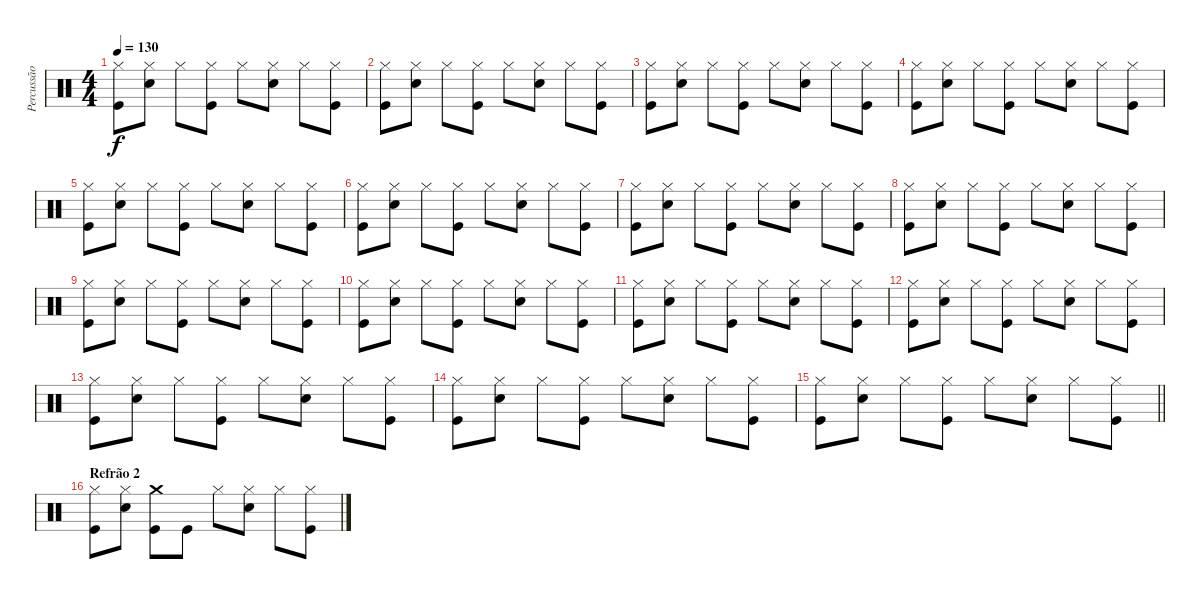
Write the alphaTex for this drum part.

\track ("Percussão" "Percussão") {instrument percussion}
\staff {score}
\articulation defaults
\ts (4 4)
\tempo 130
\clef neutral
\ks c
("Hi-Hat (closed)" "Kick (hit)").8{dy f} ("Hi-Hat (closed)" "Snare (hit) 2").8 "Hi-Hat (closed)".8 ("Hi-Hat (closed)" "Kick (hit)").8 "Hi-Hat (closed)".8 ("Hi-Hat (closed)" "Snare (hit) 2").8 "Hi-Hat (closed)".8 ("Hi-Hat (closed)" "Kick (hit)").8 |
("Hi-Hat (closed)" "Kick (hit)").8 ("Hi-Hat (closed)" "Snare (hit) 2").8 "Hi-Hat (closed)".8 ("Hi-Hat (closed)" "Kick (hit)").8 "Hi-Hat (closed)".8 ("Hi-Hat (closed)" "Snare (hit) 2").8 "Hi-Hat (closed)".8 ("Hi-Hat (closed)" "Kick (hit)").8 |
("Hi-Hat (closed)" "Kick (hit)").8 ("Hi-Hat (closed)" "Snare (hit) 2").8 "Hi-Hat (closed)".8 ("Hi-Hat (closed)" "Kick (hit)").8 "Hi-Hat (closed)".8 ("Hi-Hat (closed)" "Snare (hit) 2").8 "Hi-Hat (closed)".8 ("Hi-Hat (closed)" "Kick (hit)").8 |
("Hi-Hat (closed)" "Kick (hit)").8 ("Hi-Hat (closed)" "Snare (hit) 2").8 "Hi-Hat (closed)".8 ("Hi-Hat (closed)" "Kick (hit)").8 "Hi-Hat (closed)".8 ("Hi-Hat (closed)" "Snare (hit) 2").8 "Hi-Hat (closed)".8 ("Hi-Hat (closed)" "Kick (hit)").8 |
("Hi-Hat (closed)" "Kick (hit)").8 ("Hi-Hat (closed)" "Snare (hit) 2").8 "Hi-Hat (closed)".8 ("Hi-Hat (closed)" "Kick (hit)").8 "Hi-Hat (closed)".8 ("Hi-Hat (closed)" "Snare (hit) 2").8 "Hi-Hat (closed)".8 ("Hi-Hat (closed)" "Kick (hit)").8 |
("Hi-Hat (closed)" "Kick (hit)").8 ("Hi-Hat (closed)" "Snare (hit) 2").8 "Hi-Hat (closed)".8 ("Hi-Hat (closed)" "Kick (hit)").8 "Hi-Hat (closed)".8 ("Hi-Hat (closed)" "Snare (hit) 2").8 "Hi-Hat (closed)".8 ("Hi-Hat (closed)" "Kick (hit)").8 |
("Hi-Hat (closed)" "Kick (hit)").8 ("Hi-Hat (closed)" "Snare (hit) 2").8 "Hi-Hat (closed)".8 ("Hi-Hat (closed)" "Kick (hit)").8 "Hi-Hat (closed)".8 ("Hi-Hat (closed)" "Snare (hit) 2").8 "Hi-Hat (closed)".8 ("Hi-Hat (closed)" "Kick (hit)").8 |
("Hi-Hat (closed)" "Kick (hit)").8 ("Hi-Hat (closed)" "Snare (hit) 2").8 "Hi-Hat (closed)".8 ("Hi-Hat (closed)" "Kick (hit)").8 "Hi-Hat (closed)".8 ("Hi-Hat (closed)" "Snare (hit) 2").8 "Hi-Hat (closed)".8 ("Hi-Hat (closed)" "Kick (hit)").8 |
("Hi-Hat (closed)" "Kick (hit)").8 ("Hi-Hat (closed)" "Snare (hit) 2").8 "Hi-Hat (closed)".8 ("Hi-Hat (closed)" "Kick (hit)").8 "Hi-Hat (closed)".8 ("Hi-Hat (closed)" "Snare (hit) 2").8 "Hi-Hat (closed)".8 ("Hi-Hat (closed)" "Kick (hit)").8 |
("Hi-Hat (closed)" "Kick (hit)").8 ("Hi-Hat (closed)" "Snare (hit) 2").8 "Hi-Hat (closed)".8 ("Hi-Hat (closed)" "Kick (hit)").8 "Hi-Hat (closed)".8 ("Hi-Hat (closed)" "Snare (hit) 2").8 "Hi-Hat (closed)".8 ("Hi-Hat (closed)" "Kick (hit)").8 |
("Hi-Hat (closed)" "Kick (hit)").8 ("Hi-Hat (closed)" "Snare (hit) 2").8 "Hi-Hat (closed)".8 ("Hi-Hat (closed)" "Kick (hit)").8 "Hi-Hat (closed)".8 ("Hi-Hat (closed)" "Snare (hit) 2").8 "Hi-Hat (closed)".8 ("Hi-Hat (closed)" "Kick (hit)").8 |
("Hi-Hat (closed)" "Kick (hit)").8 ("Hi-Hat (closed)" "Snare (hit) 2").8 "Hi-Hat (closed)".8 ("Hi-Hat (closed)" "Kick (hit)").8 "Hi-Hat (closed)".8 ("Hi-Hat (closed)" "Snare (hit) 2").8 "Hi-Hat (closed)".8 ("Hi-Hat (closed)" "Kick (hit)").8 |
("Hi-Hat (closed)" "Kick (hit)").8 ("Hi-Hat (closed)" "Snare (hit) 2").8 "Hi-Hat (closed)".8 ("Hi-Hat (closed)" "Kick (hit)").8 "Hi-Hat (closed)".8 ("Hi-Hat (closed)" "Snare (hit) 2").8 "Hi-Hat (closed)".8 ("Hi-Hat (closed)" "Kick (hit)").8 |
("Hi-Hat (closed)" "Kick (hit)").8 ("Hi-Hat (closed)" "Snare (hit) 2").8 "Hi-Hat (closed)".8 ("Hi-Hat (closed)" "Kick (hit)").8 "Hi-Hat (closed)".8 ("Hi-Hat (closed)" "Snare (hit) 2").8 "Hi-Hat (closed)".8 ("Hi-Hat (closed)" "Kick (hit)").8 |
\barLineRight lightlight
("Hi-Hat (closed)" "Kick (hit)").8 ("Hi-Hat (closed)" "Snare (hit) 2").8 "Hi-Hat (closed)".8 ("Hi-Hat (closed)" "Kick (hit)").8 "Hi-Hat (closed)".8 ("Hi-Hat (closed)" "Snare (hit) 2").8 "Hi-Hat (closed)".8 ("Hi-Hat (closed)" "Kick (hit)").8 |
\section ("" "Refrão 2")
("Hi-Hat (closed)" "Kick (hit)").8 ("Hi-Hat (closed)" "Snare (hit) 2").8 ("Kick (hit)" "Crash medium (hit)").8 "Kick (hit)".8 "Hi-Hat (closed)".8 ("Hi-Hat (closed)" "Snare (hit) 2").8 "Hi-Hat (closed)".8 ("Hi-Hat (closed)" "Kick (hit)").8
